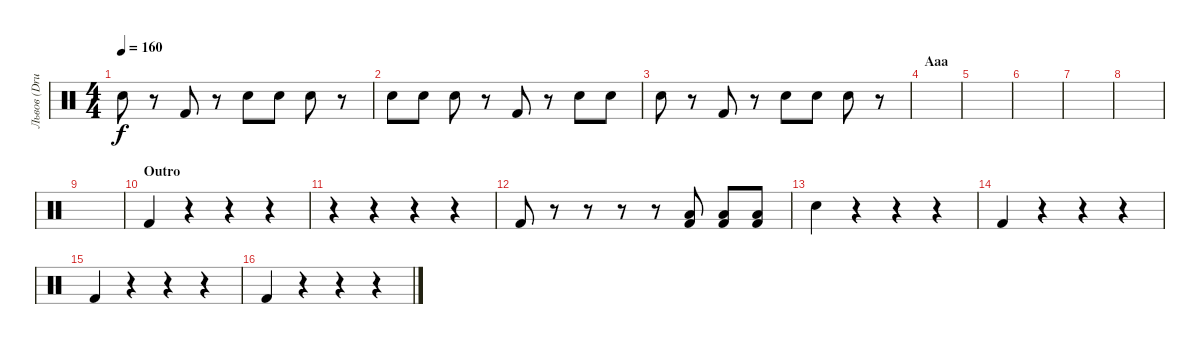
\track ("Львов (Drums)" "Львов (Dru") {instrument percussion}
\staff {score}
\articulation defaults
\ts (4 4)
\tempo 160
\clef neutral
\ks c "Electric Snare (hit)".8{dy f}
r.8 "Kick (hit) 2".8 r.8 "Electric Snare (hit)".8 "Electric Snare (hit)".8 "Electric Snare (hit)".8 r.8 |
"Electric Snare (hit)".8 "Electric Snare (hit)".8 "Electric Snare (hit)".8 r.8 "Kick (hit) 2".8 r.8 "Electric Snare (hit)".8 "Electric Snare (hit)".8 |
"Electric Snare (hit)".8 r.8 "Kick (hit) 2".8 r.8 "Electric Snare (hit)".8 "Electric Snare (hit)".8 "Electric Snare (hit)".8 r.8 |
\section ("" "Aaa")
|
|
|
|
|
|
\section ("" "Outro")
"Kick (hit) 2".4 r.4 r.4 r.4 |
r.4 r.4 r.4 r.4 |
"Kick (hit) 2".8 r.8 r.8 r.8 r.8 ("Kick (hit) 2" "Low Floor Tom (hit)").8 ("Kick (hit) 2" "Low Floor Tom (hit)").8 ("Kick (hit) 2" "Low Floor Tom (hit)").8 |
"Snare (hit) 2".4 r.4 r.4 r.4 |
"Kick (hit) 2".4 r.4 r.4 r.4 |
"Kick (hit) 2".4 r.4 r.4 r.4 |
"Kick (hit) 2".4 r.4 r.4 r.4
